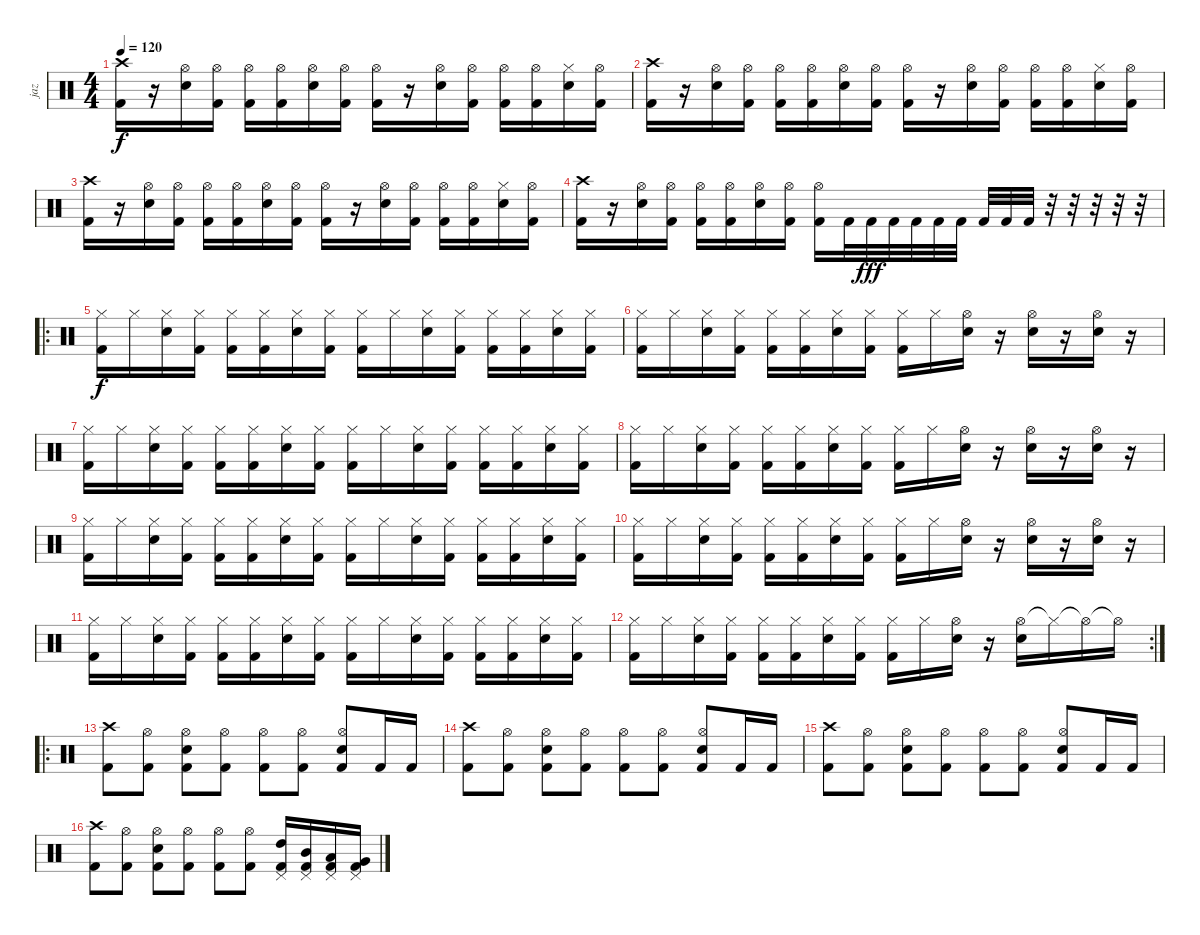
\track ("jaz" "jaz") {instrument percussion}
\staff {score}
\articulation defaults
\ts (4 4)
\tempo 120
\clef neutral
\ks c
("Crash high (hit)" "Kick (hit) 2").16{dy f} r.16 ("Hi-Hat (open)" "Electric Snare (hit)").16 ("Hi-Hat (open)" "Kick (hit) 2").16 ("Hi-Hat (open)" "Kick (hit) 2").16 ("Hi-Hat (open)" "Kick (hit) 2").16 ("Hi-Hat (open)" "Electric Snare (hit)").16 ("Hi-Hat (open)" "Kick (hit) 2").16 ("Hi-Hat (open)" "Kick (hit) 2").16 r.16 ("Hi-Hat (open)" "Electric Snare (hit)").16 ("Hi-Hat (open)" "Kick (hit) 2").16 ("Hi-Hat (open)" "Kick (hit) 2").16 ("Hi-Hat (open)" "Kick (hit) 2").16 ("Hi-Hat (closed)" "Electric Snare (hit)").16 ("Hi-Hat (open)" "Kick (hit) 2").16 |
("Crash high (hit)" "Kick (hit) 2").16 r.16 ("Hi-Hat (open)" "Electric Snare (hit)").16 ("Hi-Hat (open)" "Kick (hit) 2").16 ("Hi-Hat (open)" "Kick (hit) 2").16 ("Hi-Hat (open)" "Kick (hit) 2").16 ("Hi-Hat (open)" "Electric Snare (hit)").16 ("Hi-Hat (open)" "Kick (hit) 2").16 ("Hi-Hat (open)" "Kick (hit) 2").16 r.16 ("Hi-Hat (open)" "Electric Snare (hit)").16 ("Hi-Hat (open)" "Kick (hit) 2").16 ("Hi-Hat (open)" "Kick (hit) 2").16 ("Hi-Hat (open)" "Kick (hit) 2").16 ("Hi-Hat (closed)" "Electric Snare (hit)").16 ("Hi-Hat (open)" "Kick (hit) 2").16 |
("Crash high (hit)" "Kick (hit) 2").16 r.16 ("Hi-Hat (open)" "Electric Snare (hit)").16 ("Hi-Hat (open)" "Kick (hit) 2").16 ("Hi-Hat (open)" "Kick (hit) 2").16 ("Hi-Hat (open)" "Kick (hit) 2").16 ("Hi-Hat (open)" "Electric Snare (hit)").16 ("Hi-Hat (open)" "Kick (hit) 2").16 ("Hi-Hat (open)" "Kick (hit) 2").16 r.16 ("Hi-Hat (open)" "Electric Snare (hit)").16 ("Hi-Hat (open)" "Kick (hit) 2").16 ("Hi-Hat (open)" "Kick (hit) 2").16 ("Hi-Hat (open)" "Kick (hit) 2").16 ("Hi-Hat (closed)" "Electric Snare (hit)").16 ("Hi-Hat (open)" "Kick (hit) 2").16 |
("Crash high (hit)" "Kick (hit) 2").16 r.16 ("Hi-Hat (open)" "Electric Snare (hit)").16 ("Hi-Hat (open)" "Kick (hit) 2").16 ("Hi-Hat (open)" "Kick (hit) 2").16 ("Hi-Hat (open)" "Kick (hit) 2").16 ("Hi-Hat (open)" "Electric Snare (hit)").16 ("Hi-Hat (open)" "Kick (hit) 2").16 ("Hi-Hat (open)" "Kick (hit) 2").16 "Kick (hit) 2".32 "Kick (hit) 2".32{dy fff} "Kick (hit) 2".32 "Kick (hit) 2".32 "Kick (hit) 2".32 "Kick (hit) 2".32 "Kick (hit) 2".32 "Kick (hit) 2".32 "Kick (hit) 2".32 r.32 r.32 r.32 r.32 r.32 |
\ro
("Hi-Hat (closed)" "Kick (hit) 2").16{dy f} "Hi-Hat (closed)".16 ("Hi-Hat (closed)" "Electric Snare (hit)").16 ("Hi-Hat (closed)" "Kick (hit) 2").16 ("Hi-Hat (closed)" "Kick (hit) 2").16 ("Hi-Hat (closed)" "Kick (hit) 2").16 ("Hi-Hat (closed)" "Electric Snare (hit)").16 ("Hi-Hat (closed)" "Kick (hit) 2").16 ("Hi-Hat (closed)" "Kick (hit) 2").16 "Hi-Hat (closed)".16 ("Hi-Hat (closed)" "Electric Snare (hit)").16 ("Hi-Hat (closed)" "Kick (hit) 2").16 ("Hi-Hat (closed)" "Kick (hit) 2").16 ("Hi-Hat (closed)" "Kick (hit) 2").16 ("Hi-Hat (closed)" "Electric Snare (hit)").16 ("Hi-Hat (closed)" "Kick (hit) 2").16 |
("Hi-Hat (closed)" "Kick (hit) 2").16 "Hi-Hat (closed)".16 ("Hi-Hat (closed)" "Electric Snare (hit)").16 ("Hi-Hat (closed)" "Kick (hit) 2").16 ("Hi-Hat (closed)" "Kick (hit) 2").16 ("Hi-Hat (closed)" "Kick (hit) 2").16 ("Hi-Hat (closed)" "Electric Snare (hit)").16 ("Hi-Hat (closed)" "Kick (hit) 2").16 ("Hi-Hat (closed)" "Kick (hit) 2").16 "Hi-Hat (closed)".16 ("Hi-Hat (open)" "Electric Snare (hit)").16 r.16 ("Hi-Hat (open)" "Electric Snare (hit)").16 r.16 ("Hi-Hat (open)" "Electric Snare (hit)").16 r.16 |
("Hi-Hat (closed)" "Kick (hit) 2").16 "Hi-Hat (closed)".16 ("Hi-Hat (closed)" "Electric Snare (hit)").16 ("Hi-Hat (closed)" "Kick (hit) 2").16 ("Hi-Hat (closed)" "Kick (hit) 2").16 ("Hi-Hat (closed)" "Kick (hit) 2").16 ("Hi-Hat (closed)" "Electric Snare (hit)").16 ("Hi-Hat (closed)" "Kick (hit) 2").16 ("Hi-Hat (closed)" "Kick (hit) 2").16 "Hi-Hat (closed)".16 ("Hi-Hat (closed)" "Electric Snare (hit)").16 ("Hi-Hat (closed)" "Kick (hit) 2").16 ("Hi-Hat (closed)" "Kick (hit) 2").16 ("Hi-Hat (closed)" "Kick (hit) 2").16 ("Hi-Hat (closed)" "Electric Snare (hit)").16 ("Hi-Hat (closed)" "Kick (hit) 2").16 |
("Hi-Hat (closed)" "Kick (hit) 2").16 "Hi-Hat (closed)".16 ("Hi-Hat (closed)" "Electric Snare (hit)").16 ("Hi-Hat (closed)" "Kick (hit) 2").16 ("Hi-Hat (closed)" "Kick (hit) 2").16 ("Hi-Hat (closed)" "Kick (hit) 2").16 ("Hi-Hat (closed)" "Electric Snare (hit)").16 ("Hi-Hat (closed)" "Kick (hit) 2").16 ("Hi-Hat (closed)" "Kick (hit) 2").16 "Hi-Hat (closed)".16 ("Hi-Hat (open)" "Electric Snare (hit)").16 r.16 ("Hi-Hat (open)" "Electric Snare (hit)").16 r.16 ("Hi-Hat (open)" "Electric Snare (hit)").16 r.16 |
("Hi-Hat (closed)" "Kick (hit) 2").16 "Hi-Hat (closed)".16 ("Hi-Hat (closed)" "Electric Snare (hit)").16 ("Hi-Hat (closed)" "Kick (hit) 2").16 ("Hi-Hat (closed)" "Kick (hit) 2").16 ("Hi-Hat (closed)" "Kick (hit) 2").16 ("Hi-Hat (closed)" "Electric Snare (hit)").16 ("Hi-Hat (closed)" "Kick (hit) 2").16 ("Hi-Hat (closed)" "Kick (hit) 2").16 "Hi-Hat (closed)".16 ("Hi-Hat (closed)" "Electric Snare (hit)").16 ("Hi-Hat (closed)" "Kick (hit) 2").16 ("Hi-Hat (closed)" "Kick (hit) 2").16 ("Hi-Hat (closed)" "Kick (hit) 2").16 ("Hi-Hat (closed)" "Electric Snare (hit)").16 ("Hi-Hat (closed)" "Kick (hit) 2").16 |
("Hi-Hat (closed)" "Kick (hit) 2").16 "Hi-Hat (closed)".16 ("Hi-Hat (closed)" "Electric Snare (hit)").16 ("Hi-Hat (closed)" "Kick (hit) 2").16 ("Hi-Hat (closed)" "Kick (hit) 2").16 ("Hi-Hat (closed)" "Kick (hit) 2").16 ("Hi-Hat (closed)" "Electric Snare (hit)").16 ("Hi-Hat (closed)" "Kick (hit) 2").16 ("Hi-Hat (closed)" "Kick (hit) 2").16 "Hi-Hat (closed)".16 ("Hi-Hat (open)" "Electric Snare (hit)").16 r.16 ("Hi-Hat (open)" "Electric Snare (hit)").16 r.16 ("Hi-Hat (open)" "Electric Snare (hit)").16 r.16 |
("Hi-Hat (closed)" "Kick (hit) 2").16 "Hi-Hat (closed)".16 ("Hi-Hat (closed)" "Electric Snare (hit)").16 ("Hi-Hat (closed)" "Kick (hit) 2").16 ("Hi-Hat (closed)" "Kick (hit) 2").16 ("Hi-Hat (closed)" "Kick (hit) 2").16 ("Hi-Hat (closed)" "Electric Snare (hit)").16 ("Hi-Hat (closed)" "Kick (hit) 2").16 ("Hi-Hat (closed)" "Kick (hit) 2").16 "Hi-Hat (closed)".16 ("Hi-Hat (closed)" "Electric Snare (hit)").16 ("Hi-Hat (closed)" "Kick (hit) 2").16 ("Hi-Hat (closed)" "Kick (hit) 2").16 ("Hi-Hat (closed)" "Kick (hit) 2").16 ("Hi-Hat (closed)" "Electric Snare (hit)").16 ("Hi-Hat (closed)" "Kick (hit) 2").16 |
\rc 2
("Hi-Hat (closed)" "Kick (hit) 2").16 "Hi-Hat (closed)".16 ("Hi-Hat (closed)" "Electric Snare (hit)").16 ("Hi-Hat (closed)" "Kick (hit) 2").16 ("Hi-Hat (closed)" "Kick (hit) 2").16 ("Hi-Hat (closed)" "Kick (hit) 2").16 ("Hi-Hat (closed)" "Electric Snare (hit)").16 ("Hi-Hat (closed)" "Kick (hit) 2").16 ("Hi-Hat (closed)" "Kick (hit) 2").16 "Hi-Hat (closed)".16 ("Hi-Hat (open)" "Electric Snare (hit)").16 r.16 ("Hi-Hat (open)" "Electric Snare (hit)").16 "Hi-Hat (closed)"{t}.16 "Hi-Hat (open)"{t}.16 "Hi-Hat (open)"{t}.16 |
\ro
("Crash high (hit)" "Kick (hit) 2").8 ("Hi-Hat (open)" "Kick (hit) 2").8 ("Hi-Hat (open)" "Electric Snare (hit)" "Kick (hit) 2").8 ("Hi-Hat (open)" "Kick (hit) 2").8 ("Hi-Hat (open)" "Kick (hit) 2").8 ("Hi-Hat (open)" "Kick (hit) 2").8 ("Hi-Hat (open)" "Electric Snare (hit)" "Kick (hit) 2").8 "Kick (hit) 2".16 "Kick (hit) 2".16 |
("Crash high (hit)" "Kick (hit) 2").8 ("Hi-Hat (open)" "Kick (hit) 2").8 ("Hi-Hat (open)" "Electric Snare (hit)" "Kick (hit) 2").8 ("Hi-Hat (open)" "Kick (hit) 2").8 ("Hi-Hat (open)" "Kick (hit) 2").8 ("Hi-Hat (open)" "Kick (hit) 2").8 ("Hi-Hat (open)" "Electric Snare (hit)" "Kick (hit) 2").8 "Kick (hit) 2".16 "Kick (hit) 2".16 |
("Crash high (hit)" "Kick (hit) 2").8 ("Hi-Hat (open)" "Kick (hit) 2").8 ("Hi-Hat (open)" "Electric Snare (hit)" "Kick (hit) 2").8 ("Hi-Hat (open)" "Kick (hit) 2").8 ("Hi-Hat (open)" "Kick (hit) 2").8 ("Hi-Hat (open)" "Kick (hit) 2").8 ("Hi-Hat (open)" "Electric Snare (hit)" "Kick (hit) 2").8 "Kick (hit) 2".16 "Kick (hit) 2".16 |
("Crash high (hit)" "Kick (hit) 2").8 ("Hi-Hat (open)" "Kick (hit) 2").8 ("Hi-Hat (open)" "Electric Snare (hit)" "Kick (hit) 2").8 ("Hi-Hat (open)" "Kick (hit) 2").8 ("Hi-Hat (open)" "Kick (hit) 2").8 ("Hi-Hat (open)" "Kick (hit) 2").8 ("Pedal Hi-Hat (hit)" "High Tom (hit)" "Kick (hit) 2").16 ("Pedal Hi-Hat (hit)" "Mid Tom (hit)" "Kick (hit) 2").16 ("Pedal Hi-Hat (hit)" "Low Tom (hit)" "Kick (hit) 2").16 ("Pedal Hi-Hat (hit)" "Very Low Tom (hit)" "Kick (hit) 2").16
